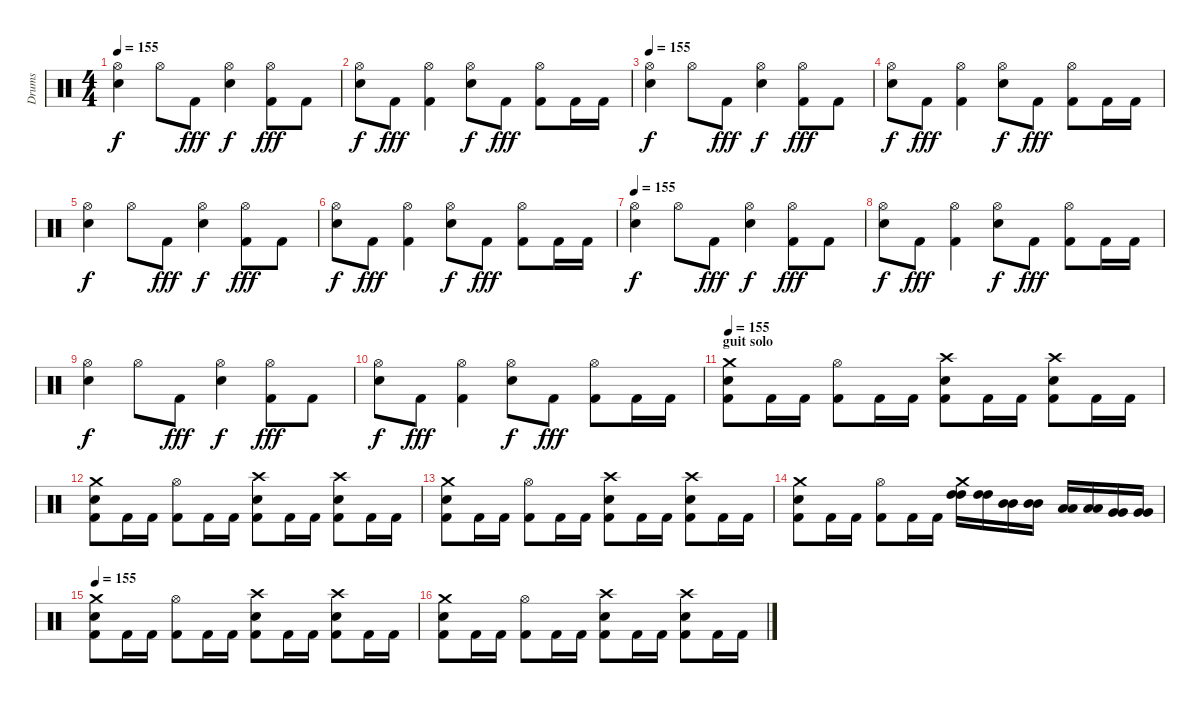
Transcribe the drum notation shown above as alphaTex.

\track ("Drums" "Drums") {instrument percussion}
\staff {score}
\articulation defaults
\ts (4 4)
\tempo 155
\clef neutral
\ks c
("Hi-Hat (open)" "Electric Snare (hit)").4{dy f} "Hi-Hat (open)".8 "Kick (hit) 2".8{dy fff} ("Hi-Hat (open)" "Electric Snare (hit)").4{dy f} ("Hi-Hat (open)" "Kick (hit) 2").8{dy fff} "Kick (hit) 2".8 |
("Hi-Hat (open)" "Electric Snare (hit)").8{dy f} "Kick (hit) 2".8{dy fff} ("Hi-Hat (open)" "Kick (hit) 2").4 ("Hi-Hat (open)" "Electric Snare (hit)").8{dy f} "Kick (hit) 2".8{dy fff} ("Hi-Hat (open)" "Kick (hit) 2").8 "Kick (hit) 2".16 "Kick (hit) 2".16 |
\tempo 155
("Hi-Hat (open)" "Electric Snare (hit)").4{dy f} "Hi-Hat (open)".8 "Kick (hit) 2".8{dy fff} ("Hi-Hat (open)" "Electric Snare (hit)").4{dy f} ("Hi-Hat (open)" "Kick (hit) 2").8{dy fff} "Kick (hit) 2".8 |
("Hi-Hat (open)" "Electric Snare (hit)").8{dy f} "Kick (hit) 2".8{dy fff} ("Hi-Hat (open)" "Kick (hit) 2").4 ("Hi-Hat (open)" "Electric Snare (hit)").8{dy f} "Kick (hit) 2".8{dy fff} ("Hi-Hat (open)" "Kick (hit) 2").8 "Kick (hit) 2".16 "Kick (hit) 2".16 |
("Hi-Hat (open)" "Electric Snare (hit)").4{dy f} "Hi-Hat (open)".8 "Kick (hit) 2".8{dy fff} ("Hi-Hat (open)" "Electric Snare (hit)").4{dy f} ("Hi-Hat (open)" "Kick (hit) 2").8{dy fff} "Kick (hit) 2".8 |
("Hi-Hat (open)" "Electric Snare (hit)").8{dy f} "Kick (hit) 2".8{dy fff} ("Hi-Hat (open)" "Kick (hit) 2").4 ("Hi-Hat (open)" "Electric Snare (hit)").8{dy f} "Kick (hit) 2".8{dy fff} ("Hi-Hat (open)" "Kick (hit) 2").8 "Kick (hit) 2".16 "Kick (hit) 2".16 |
\tempo 155
("Hi-Hat (open)" "Electric Snare (hit)").4{dy f} "Hi-Hat (open)".8 "Kick (hit) 2".8{dy fff} ("Hi-Hat (open)" "Electric Snare (hit)").4{dy f} ("Hi-Hat (open)" "Kick (hit) 2").8{dy fff} "Kick (hit) 2".8 |
("Hi-Hat (open)" "Electric Snare (hit)").8{dy f} "Kick (hit) 2".8{dy fff} ("Hi-Hat (open)" "Kick (hit) 2").4 ("Hi-Hat (open)" "Electric Snare (hit)").8{dy f} "Kick (hit) 2".8{dy fff} ("Hi-Hat (open)" "Kick (hit) 2").8 "Kick (hit) 2".16 "Kick (hit) 2".16 |
("Hi-Hat (open)" "Electric Snare (hit)").4{dy f} "Hi-Hat (open)".8 "Kick (hit) 2".8{dy fff} ("Hi-Hat (open)" "Electric Snare (hit)").4{dy f} ("Hi-Hat (open)" "Kick (hit) 2").8{dy fff} "Kick (hit) 2".8 |
("Hi-Hat (open)" "Electric Snare (hit)").8{dy f} "Kick (hit) 2".8{dy fff} ("Hi-Hat (open)" "Kick (hit) 2").4 ("Hi-Hat (open)" "Electric Snare (hit)").8{dy f} "Kick (hit) 2".8{dy fff} ("Hi-Hat (open)" "Kick (hit) 2").8 "Kick (hit) 2".16 "Kick (hit) 2".16 |
\section ("" "guit solo")
\tempo 155
("Crash medium (hit)" "Electric Snare (hit)" "Kick (hit) 2").8 "Kick (hit) 2".16 "Kick (hit) 2".16 ("Hi-Hat (open)" "Kick (hit) 2").8 "Kick (hit) 2".16 "Kick (hit) 2".16 ("Crash high (hit)" "Electric Snare (hit)" "Kick (hit) 2").8 "Kick (hit) 2".16 "Kick (hit) 2".16 ("Crash high (hit)" "Electric Snare (hit)" "Kick (hit) 2").8 "Kick (hit) 2".16 "Kick (hit) 2".16 |
("Crash medium (hit)" "Electric Snare (hit)" "Kick (hit) 2").8 "Kick (hit) 2".16 "Kick (hit) 2".16 ("Hi-Hat (open)" "Kick (hit) 2").8 "Kick (hit) 2".16 "Kick (hit) 2".16 ("Crash high (hit)" "Electric Snare (hit)" "Kick (hit) 2").8 "Kick (hit) 2".16 "Kick (hit) 2".16 ("Crash high (hit)" "Electric Snare (hit)" "Kick (hit) 2").8 "Kick (hit) 2".16 "Kick (hit) 2".16 |
("Crash medium (hit)" "Electric Snare (hit)" "Kick (hit) 2").8 "Kick (hit) 2".16 "Kick (hit) 2".16 ("Hi-Hat (open)" "Kick (hit) 2").8 "Kick (hit) 2".16 "Kick (hit) 2".16 ("Crash high (hit)" "Electric Snare (hit)" "Kick (hit) 2").8 "Kick (hit) 2".16 "Kick (hit) 2".16 ("Crash high (hit)" "Electric Snare (hit)" "Kick (hit) 2").8 "Kick (hit) 2".16 "Kick (hit) 2".16 |
("Crash medium (hit)" "Electric Snare (hit)" "Kick (hit) 2").8 "Kick (hit) 2".16 "Kick (hit) 2".16 ("Hi-Hat (open)" "Kick (hit) 2").8 "Kick (hit) 2".16 "Kick (hit) 2".16 ("Crash medium (hit)" "High Tom (hit)" "High Tom (hit)").16 ("High Tom (hit)" "High Tom (hit)").16 ("Mid Tom (hit)" "Mid Tom (hit)").16 ("Mid Tom (hit)" "Mid Tom (hit)").16 ("Low Tom (hit)" "Low Tom (hit)").16 ("Low Tom (hit)" "Low Tom (hit)").16 ("Very Low Tom (hit)" "Very Low Tom (hit)").16 ("Very Low Tom (hit)" "Very Low Tom (hit)").16 |
\tempo 155
("Crash medium (hit)" "Electric Snare (hit)" "Kick (hit) 2").8 "Kick (hit) 2".16 "Kick (hit) 2".16 ("Hi-Hat (open)" "Kick (hit) 2").8 "Kick (hit) 2".16 "Kick (hit) 2".16 ("Crash high (hit)" "Electric Snare (hit)" "Kick (hit) 2").8 "Kick (hit) 2".16 "Kick (hit) 2".16 ("Crash high (hit)" "Electric Snare (hit)" "Kick (hit) 2").8 "Kick (hit) 2".16 "Kick (hit) 2".16 |
("Crash medium (hit)" "Electric Snare (hit)" "Kick (hit) 2").8 "Kick (hit) 2".16 "Kick (hit) 2".16 ("Hi-Hat (open)" "Kick (hit) 2").8 "Kick (hit) 2".16 "Kick (hit) 2".16 ("Crash high (hit)" "Electric Snare (hit)" "Kick (hit) 2").8 "Kick (hit) 2".16 "Kick (hit) 2".16 ("Crash high (hit)" "Electric Snare (hit)" "Kick (hit) 2").8 "Kick (hit) 2".16 "Kick (hit) 2".16
